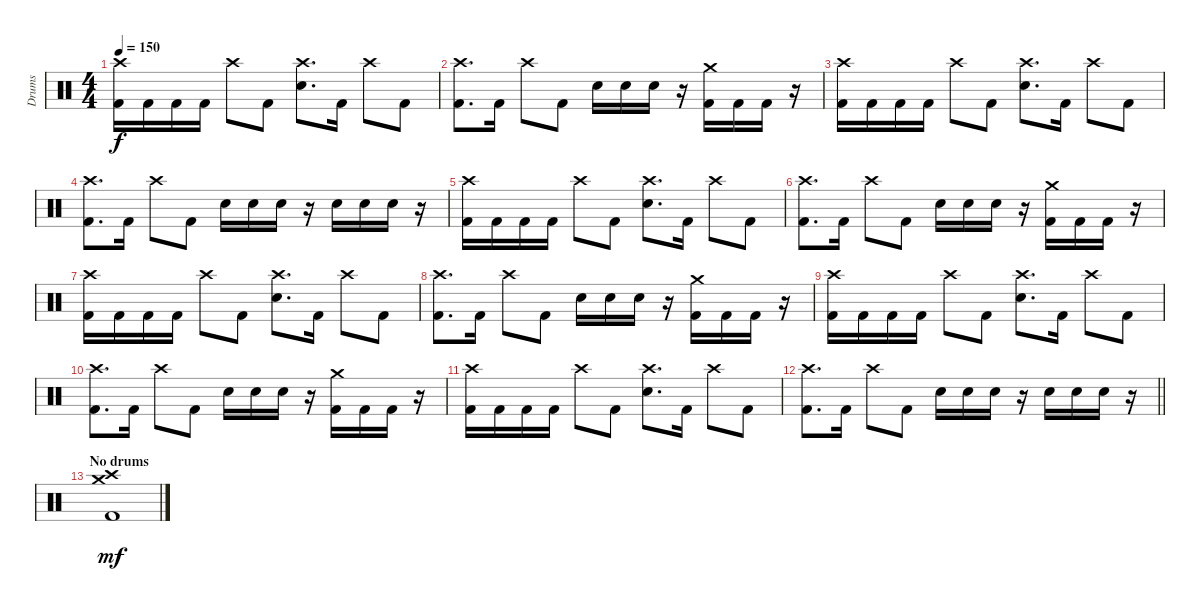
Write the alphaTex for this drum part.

\track ("Drums" "Drums") {instrument percussion}
\staff {score}
\articulation defaults
\ts (4 4)
\tempo 150
\clef neutral
\ks c
("Crash high (hit)" "Kick (hit) 2").16{dy f} "Kick (hit) 2".16 "Kick (hit) 2".16 "Kick (hit) 2".16 "Crash high (hit)".8 "Kick (hit) 2".8 ("Crash high (hit)" "Electric Snare (hit)").8{d} "Kick (hit) 2".16 "Crash high (hit)".8 "Kick (hit) 2".8 |
("Crash high (hit)" "Kick (hit) 2").8{d} "Kick (hit) 2".16 "Crash high (hit)".8 "Kick (hit) 2".8 "Electric Snare (hit)".16 "Electric Snare (hit)".16 "Electric Snare (hit)".16 r.16 ("Crash medium (hit)" "Kick (hit) 2").16 "Kick (hit) 2".16 "Kick (hit) 2".16 r.16 |
("Crash high (hit)" "Kick (hit) 2").16 "Kick (hit) 2".16 "Kick (hit) 2".16 "Kick (hit) 2".16 "Crash high (hit)".8 "Kick (hit) 2".8 ("Crash high (hit)" "Electric Snare (hit)").8{d} "Kick (hit) 2".16 "Crash high (hit)".8 "Kick (hit) 2".8 |
("Crash high (hit)" "Kick (hit) 2").8{d} "Kick (hit) 2".16 "Crash high (hit)".8 "Kick (hit) 2".8 "Electric Snare (hit)".16 "Electric Snare (hit)".16 "Electric Snare (hit)".16 r.16 "Electric Snare (hit)".16 "Electric Snare (hit)".16 "Electric Snare (hit)".16 r.16 |
("Crash high (hit)" "Kick (hit) 2").16 "Kick (hit) 2".16 "Kick (hit) 2".16 "Kick (hit) 2".16 "Crash high (hit)".8 "Kick (hit) 2".8 ("Crash high (hit)" "Electric Snare (hit)").8{d} "Kick (hit) 2".16 "Crash high (hit)".8 "Kick (hit) 2".8 |
("Crash high (hit)" "Kick (hit) 2").8{d} "Kick (hit) 2".16 "Crash high (hit)".8 "Kick (hit) 2".8 "Electric Snare (hit)".16 "Electric Snare (hit)".16 "Electric Snare (hit)".16 r.16 ("Crash medium (hit)" "Kick (hit) 2").16 "Kick (hit) 2".16 "Kick (hit) 2".16 r.16 |
("Crash high (hit)" "Kick (hit) 2").16 "Kick (hit) 2".16 "Kick (hit) 2".16 "Kick (hit) 2".16 "Crash high (hit)".8 "Kick (hit) 2".8 ("Crash high (hit)" "Electric Snare (hit)").8{d} "Kick (hit) 2".16 "Crash high (hit)".8 "Kick (hit) 2".8 |
("Crash high (hit)" "Kick (hit) 2").8{d} "Kick (hit) 2".16 "Crash high (hit)".8 "Kick (hit) 2".8 "Electric Snare (hit)".16 "Electric Snare (hit)".16 "Electric Snare (hit)".16 r.16 ("Crash medium (hit)" "Kick (hit) 2").16 "Kick (hit) 2".16 "Kick (hit) 2".16 r.16 |
("Crash high (hit)" "Kick (hit) 2").16 "Kick (hit) 2".16 "Kick (hit) 2".16 "Kick (hit) 2".16 "Crash high (hit)".8 "Kick (hit) 2".8 ("Crash high (hit)" "Electric Snare (hit)").8{d} "Kick (hit) 2".16 "Crash high (hit)".8 "Kick (hit) 2".8 |
("Crash high (hit)" "Kick (hit) 2").8{d} "Kick (hit) 2".16 "Crash high (hit)".8 "Kick (hit) 2".8 "Electric Snare (hit)".16 "Electric Snare (hit)".16 "Electric Snare (hit)".16 r.16 ("Crash medium (hit)" "Kick (hit) 2").16 "Kick (hit) 2".16 "Kick (hit) 2".16 r.16 |
("Crash high (hit)" "Kick (hit) 2").16 "Kick (hit) 2".16 "Kick (hit) 2".16 "Kick (hit) 2".16 "Crash high (hit)".8 "Kick (hit) 2".8 ("Crash high (hit)" "Electric Snare (hit)").8{d} "Kick (hit) 2".16 "Crash high (hit)".8 "Kick (hit) 2".8 |
\barLineRight lightlight
("Crash high (hit)" "Kick (hit) 2").8{d} "Kick (hit) 2".16 "Crash high (hit)".8 "Kick (hit) 2".8 "Electric Snare (hit)".16 "Electric Snare (hit)".16 "Electric Snare (hit)".16 r.16 "Electric Snare (hit)".16 "Electric Snare (hit)".16 "Electric Snare (hit)".16 r.16 |
\section ("" "No drums")
("Crash high (hit)" "Crash medium (hit)" "Kick (hit) 2").1{dy mf}
